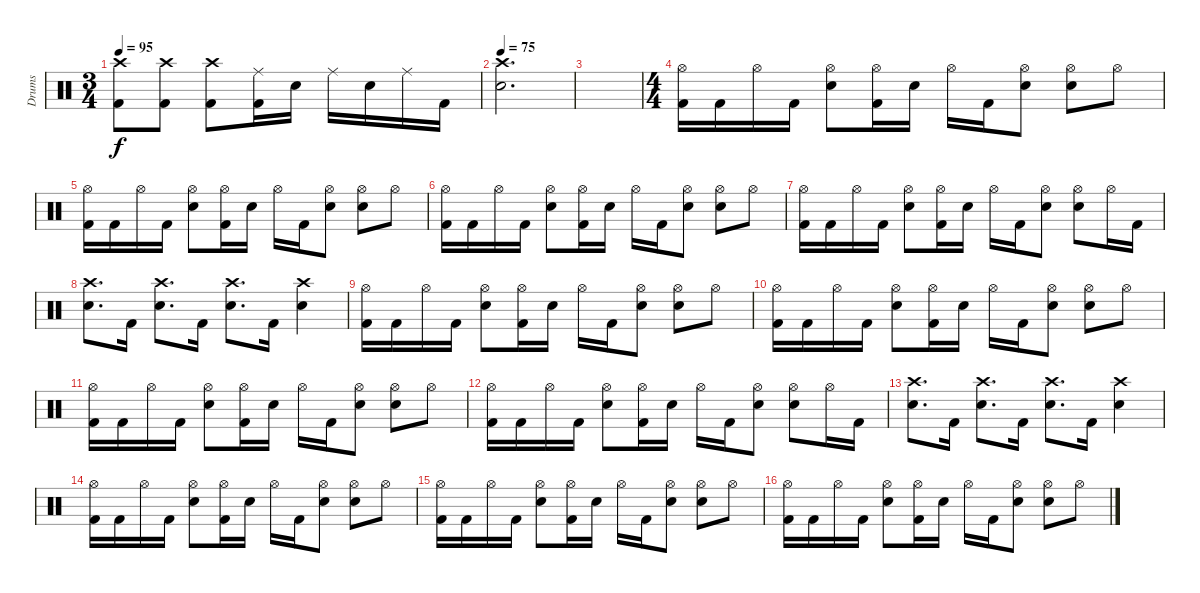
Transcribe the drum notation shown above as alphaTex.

\track ("Drums" "Drums") {instrument percussion}
\staff {score}
\articulation defaults
\ts (3 4)
\tempo 95
\clef neutral
\ks c
("Crash high (hit)" "Kick (hit) 2").8{dy f} ("Crash high (hit)" "Kick (hit) 2").8 ("Crash high (hit)" "Kick (hit) 2").8 ("Ride (middle)" "Kick (hit) 2").16 "Snare (hit) 2".16 "Ride (middle)".16 "Snare (hit) 2".16 "Ride (middle)".16 "Kick (hit) 2".16 |
\tempo 75
("Crash high (hit)" "Snare (hit) 2").2{d} |
|
\ts (4 4)
("Hi-Hat (open)" "Kick (hit) 2").16 "Kick (hit) 2".16 "Hi-Hat (open)".16 "Kick (hit) 2".16 ("Hi-Hat (open)" "Snare (hit) 2").8 ("Hi-Hat (open)" "Kick (hit) 2").16 "Snare (hit) 2".16 "Hi-Hat (open)".16 "Kick (hit) 2".16 ("Hi-Hat (open)" "Snare (hit) 2").8 ("Hi-Hat (open)" "Snare (hit) 2").8 "Hi-Hat (open)".8 |
("Hi-Hat (open)" "Kick (hit) 2").16 "Kick (hit) 2".16 "Hi-Hat (open)".16 "Kick (hit) 2".16 ("Hi-Hat (open)" "Snare (hit) 2").8 ("Hi-Hat (open)" "Kick (hit) 2").16 "Snare (hit) 2".16 "Hi-Hat (open)".16 "Kick (hit) 2".16 ("Hi-Hat (open)" "Snare (hit) 2").8 ("Hi-Hat (open)" "Snare (hit) 2").8 "Hi-Hat (open)".8 |
("Hi-Hat (open)" "Kick (hit) 2").16 "Kick (hit) 2".16 "Hi-Hat (open)".16 "Kick (hit) 2".16 ("Hi-Hat (open)" "Snare (hit) 2").8 ("Hi-Hat (open)" "Kick (hit) 2").16 "Snare (hit) 2".16 "Hi-Hat (open)".16 "Kick (hit) 2".16 ("Hi-Hat (open)" "Snare (hit) 2").8 ("Hi-Hat (open)" "Snare (hit) 2").8 "Hi-Hat (open)".8 |
("Hi-Hat (open)" "Kick (hit) 2").16 "Kick (hit) 2".16 "Hi-Hat (open)".16 "Kick (hit) 2".16 ("Hi-Hat (open)" "Snare (hit) 2").8 ("Hi-Hat (open)" "Kick (hit) 2").16 "Snare (hit) 2".16 "Hi-Hat (open)".16 "Kick (hit) 2".16 ("Hi-Hat (open)" "Snare (hit) 2").8 ("Hi-Hat (open)" "Snare (hit) 2").8 "Hi-Hat (open)".16 "Kick (hit) 2".16 |
("Crash high (hit)" "Snare (hit) 2").8{d} "Kick (hit) 2".16 ("Crash high (hit)" "Snare (hit) 2").8{d} "Kick (hit) 2".16 ("Crash high (hit)" "Snare (hit) 2").8{d} "Kick (hit) 2".16 ("Crash high (hit)" "Snare (hit) 2").4 |
("Hi-Hat (open)" "Kick (hit) 2").16 "Kick (hit) 2".16 "Hi-Hat (open)".16 "Kick (hit) 2".16 ("Hi-Hat (open)" "Snare (hit) 2").8 ("Hi-Hat (open)" "Kick (hit) 2").16 "Snare (hit) 2".16 "Hi-Hat (open)".16 "Kick (hit) 2".16 ("Hi-Hat (open)" "Snare (hit) 2").8 ("Hi-Hat (open)" "Snare (hit) 2").8 "Hi-Hat (open)".8 |
("Hi-Hat (open)" "Kick (hit) 2").16 "Kick (hit) 2".16 "Hi-Hat (open)".16 "Kick (hit) 2".16 ("Hi-Hat (open)" "Snare (hit) 2").8 ("Hi-Hat (open)" "Kick (hit) 2").16 "Snare (hit) 2".16 "Hi-Hat (open)".16 "Kick (hit) 2".16 ("Hi-Hat (open)" "Snare (hit) 2").8 ("Hi-Hat (open)" "Snare (hit) 2").8 "Hi-Hat (open)".8 |
("Hi-Hat (open)" "Kick (hit) 2").16 "Kick (hit) 2".16 "Hi-Hat (open)".16 "Kick (hit) 2".16 ("Hi-Hat (open)" "Snare (hit) 2").8 ("Hi-Hat (open)" "Kick (hit) 2").16 "Snare (hit) 2".16 "Hi-Hat (open)".16 "Kick (hit) 2".16 ("Hi-Hat (open)" "Snare (hit) 2").8 ("Hi-Hat (open)" "Snare (hit) 2").8 "Hi-Hat (open)".8 |
("Hi-Hat (open)" "Kick (hit) 2").16 "Kick (hit) 2".16 "Hi-Hat (open)".16 "Kick (hit) 2".16 ("Hi-Hat (open)" "Snare (hit) 2").8 ("Hi-Hat (open)" "Kick (hit) 2").16 "Snare (hit) 2".16 "Hi-Hat (open)".16 "Kick (hit) 2".16 ("Hi-Hat (open)" "Snare (hit) 2").8 ("Hi-Hat (open)" "Snare (hit) 2").8 "Hi-Hat (open)".16 "Kick (hit) 2".16 |
("Crash high (hit)" "Snare (hit) 2").8{d} "Kick (hit) 2".16 ("Crash high (hit)" "Snare (hit) 2").8{d} "Kick (hit) 2".16 ("Crash high (hit)" "Snare (hit) 2").8{d} "Kick (hit) 2".16 ("Crash high (hit)" "Snare (hit) 2").4 |
("Hi-Hat (open)" "Kick (hit) 2").16 "Kick (hit) 2".16 "Hi-Hat (open)".16 "Kick (hit) 2".16 ("Hi-Hat (open)" "Snare (hit) 2").8 ("Hi-Hat (open)" "Kick (hit) 2").16 "Snare (hit) 2".16 "Hi-Hat (open)".16 "Kick (hit) 2".16 ("Hi-Hat (open)" "Snare (hit) 2").8 ("Hi-Hat (open)" "Snare (hit) 2").8 "Hi-Hat (open)".8 |
("Hi-Hat (open)" "Kick (hit) 2").16 "Kick (hit) 2".16 "Hi-Hat (open)".16 "Kick (hit) 2".16 ("Hi-Hat (open)" "Snare (hit) 2").8 ("Hi-Hat (open)" "Kick (hit) 2").16 "Snare (hit) 2".16 "Hi-Hat (open)".16 "Kick (hit) 2".16 ("Hi-Hat (open)" "Snare (hit) 2").8 ("Hi-Hat (open)" "Snare (hit) 2").8 "Hi-Hat (open)".8 |
("Hi-Hat (open)" "Kick (hit) 2").16 "Kick (hit) 2".16 "Hi-Hat (open)".16 "Kick (hit) 2".16 ("Hi-Hat (open)" "Snare (hit) 2").8 ("Hi-Hat (open)" "Kick (hit) 2").16 "Snare (hit) 2".16 "Hi-Hat (open)".16 "Kick (hit) 2".16 ("Hi-Hat (open)" "Snare (hit) 2").8 ("Hi-Hat (open)" "Snare (hit) 2").8 "Hi-Hat (open)".8
